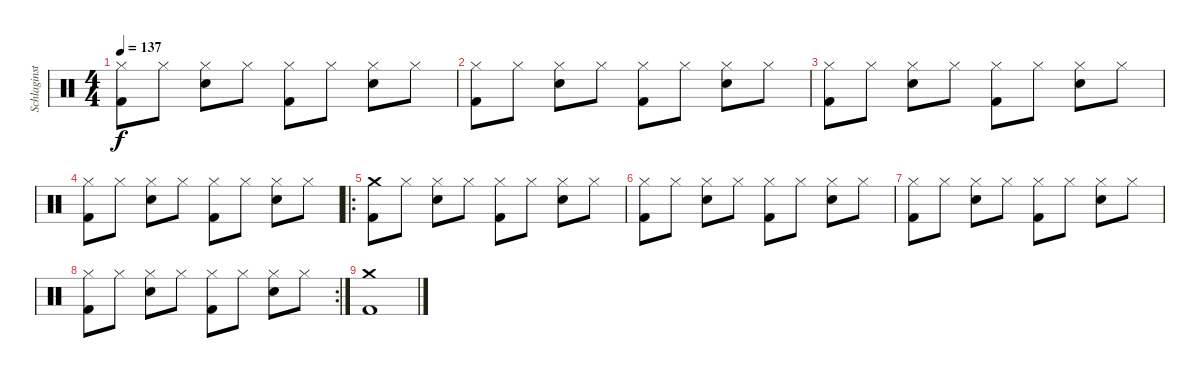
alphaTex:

\track ("Schlaginstrumente - Auswahl" "Schlaginst") {instrument percussion}
\staff {score}
\articulation defaults
\ts (4 4)
\tempo 137
\clef neutral
\ks c
("Hi-Hat (closed)" "Kick (hit) 2").8{dy f} "Hi-Hat (closed)".8 ("Hi-Hat (closed)" "Electric Snare (hit)").8 "Hi-Hat (closed)".8 ("Hi-Hat (closed)" "Kick (hit) 2").8 "Hi-Hat (closed)".8 ("Hi-Hat (closed)" "Electric Snare (hit)").8 "Hi-Hat (closed)".8 |
("Hi-Hat (closed)" "Kick (hit) 2").8 "Hi-Hat (closed)".8 ("Hi-Hat (closed)" "Electric Snare (hit)").8 "Hi-Hat (closed)".8 ("Hi-Hat (closed)" "Kick (hit) 2").8 "Hi-Hat (closed)".8 ("Hi-Hat (closed)" "Electric Snare (hit)").8 "Hi-Hat (closed)".8 |
("Hi-Hat (closed)" "Kick (hit) 2").8 "Hi-Hat (closed)".8 ("Hi-Hat (closed)" "Electric Snare (hit)").8 "Hi-Hat (closed)".8 ("Hi-Hat (closed)" "Kick (hit) 2").8 "Hi-Hat (closed)".8 ("Hi-Hat (closed)" "Electric Snare (hit)").8 "Hi-Hat (closed)".8 |
("Hi-Hat (closed)" "Kick (hit) 2").8 "Hi-Hat (closed)".8 ("Hi-Hat (closed)" "Electric Snare (hit)").8 "Hi-Hat (closed)".8 ("Hi-Hat (closed)" "Kick (hit) 2").8 "Hi-Hat (closed)".8 ("Hi-Hat (closed)" "Electric Snare (hit)").8 "Hi-Hat (closed)".8 |
\ro
("Crash medium (hit)" "Kick (hit) 2").8 "Hi-Hat (closed)".8 ("Hi-Hat (closed)" "Electric Snare (hit)").8 "Hi-Hat (closed)".8 ("Hi-Hat (closed)" "Kick (hit) 2").8 "Hi-Hat (closed)".8 ("Hi-Hat (closed)" "Electric Snare (hit)").8 "Hi-Hat (closed)".8 |
("Hi-Hat (closed)" "Kick (hit) 2").8 "Hi-Hat (closed)".8 ("Hi-Hat (closed)" "Electric Snare (hit)").8 "Hi-Hat (closed)".8 ("Hi-Hat (closed)" "Kick (hit) 2").8 "Hi-Hat (closed)".8 ("Hi-Hat (closed)" "Electric Snare (hit)").8 "Hi-Hat (closed)".8 |
("Hi-Hat (closed)" "Kick (hit) 2").8 "Hi-Hat (closed)".8 ("Hi-Hat (closed)" "Electric Snare (hit)").8 "Hi-Hat (closed)".8 ("Hi-Hat (closed)" "Kick (hit) 2").8 "Hi-Hat (closed)".8 ("Hi-Hat (closed)" "Electric Snare (hit)").8 "Hi-Hat (closed)".8 |
\rc 2
("Hi-Hat (closed)" "Kick (hit) 2").8 "Hi-Hat (closed)".8 ("Hi-Hat (closed)" "Electric Snare (hit)").8 "Hi-Hat (closed)".8 ("Hi-Hat (closed)" "Kick (hit) 2").8 "Hi-Hat (closed)".8 ("Hi-Hat (closed)" "Electric Snare (hit)").8 "Hi-Hat (closed)".8 |
("Crash medium (hit)" "Kick (hit) 2").1
